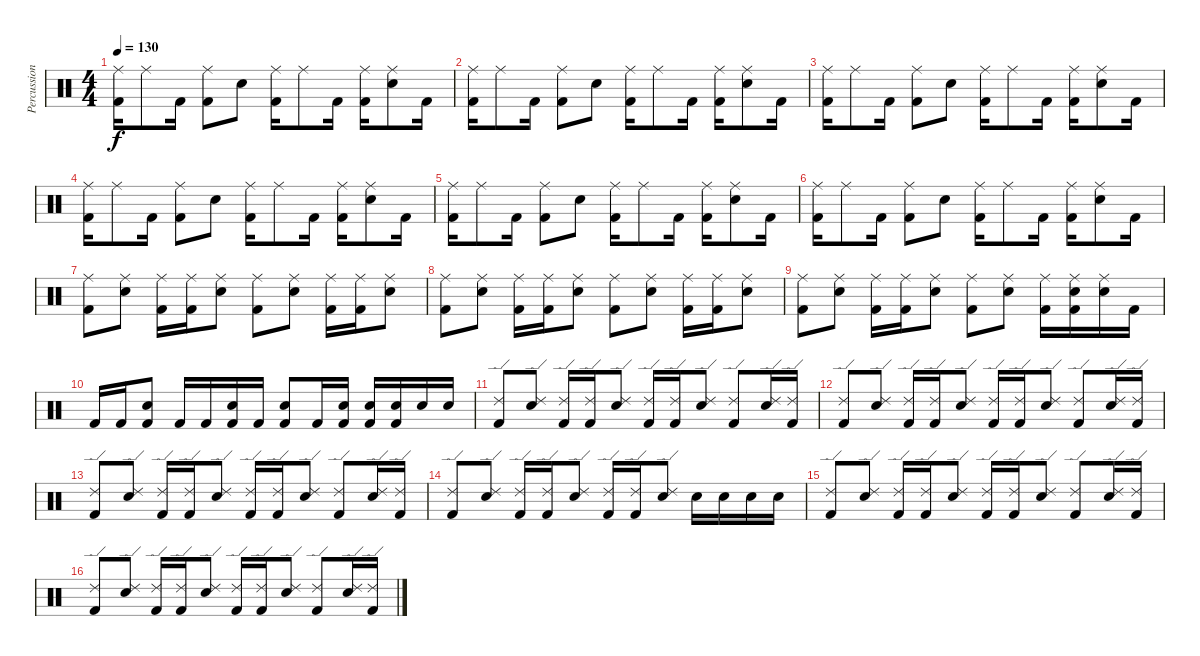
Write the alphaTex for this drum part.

\track ("Percussion" "Percussion") {instrument percussion}
\staff {score}
\articulation defaults
\ts (4 4)
\tempo 130
\clef neutral
\ks c
("Kick (hit) 2" "Ride (middle)").16{dy f} "Ride (middle)".8 "Kick (hit) 2".16 ("Kick (hit) 2" "Ride (middle)").8 "Snare (hit) 2".8 ("Kick (hit) 2" "Ride (middle)").16 "Ride (middle)".8 "Kick (hit) 2".16 ("Kick (hit) 2" "Ride (middle)").16 ("Snare (hit) 2" "Ride (middle)").8 "Kick (hit) 2".16 |
("Kick (hit) 2" "Ride (middle)").16 "Ride (middle)".8 "Kick (hit) 2".16 ("Kick (hit) 2" "Ride (middle)").8 "Snare (hit) 2".8 ("Kick (hit) 2" "Ride (middle)").16 "Ride (middle)".8 "Kick (hit) 2".16 ("Kick (hit) 2" "Ride (middle)").16 ("Snare (hit) 2" "Ride (middle)").8 "Kick (hit) 2".16 |
("Kick (hit) 2" "Ride (middle)").16 "Ride (middle)".8 "Kick (hit) 2".16 ("Kick (hit) 2" "Ride (middle)").8 "Snare (hit) 2".8 ("Kick (hit) 2" "Ride (middle)").16 "Ride (middle)".8 "Kick (hit) 2".16 ("Kick (hit) 2" "Ride (middle)").16 ("Snare (hit) 2" "Ride (middle)").8 "Kick (hit) 2".16 |
("Kick (hit) 2" "Ride (middle)").16 "Ride (middle)".8 "Kick (hit) 2".16 ("Kick (hit) 2" "Ride (middle)").8 "Snare (hit) 2".8 ("Kick (hit) 2" "Ride (middle)").16 "Ride (middle)".8 "Kick (hit) 2".16 ("Kick (hit) 2" "Ride (middle)").16 ("Snare (hit) 2" "Ride (middle)").8 "Kick (hit) 2".16 |
("Kick (hit) 2" "Ride (middle)").16 "Ride (middle)".8 "Kick (hit) 2".16 ("Kick (hit) 2" "Ride (middle)").8 "Snare (hit) 2".8 ("Kick (hit) 2" "Ride (middle)").16 "Ride (middle)".8 "Kick (hit) 2".16 ("Kick (hit) 2" "Ride (middle)").16 ("Snare (hit) 2" "Ride (middle)").8 "Kick (hit) 2".16 |
("Kick (hit) 2" "Ride (middle)").16 "Ride (middle)".8 "Kick (hit) 2".16 ("Kick (hit) 2" "Ride (middle)").8 "Snare (hit) 2".8 ("Kick (hit) 2" "Ride (middle)").16 "Ride (middle)".8 "Kick (hit) 2".16 ("Kick (hit) 2" "Ride (middle)").16 ("Snare (hit) 2" "Ride (middle)").8 "Kick (hit) 2".16 |
("Kick (hit) 2" "Ride (middle)").8 ("Snare (hit) 2" "Ride (middle)").8 ("Kick (hit) 2" "Ride (middle)").16 ("Kick (hit) 2" "Ride (middle)").16 ("Snare (hit) 2" "Ride (middle)").8 ("Kick (hit) 2" "Ride (middle)").8 ("Snare (hit) 2" "Ride (middle)").8 ("Kick (hit) 2" "Ride (middle)").16 ("Kick (hit) 2" "Ride (middle)").16 ("Snare (hit) 2" "Ride (middle)").8 |
("Kick (hit) 2" "Ride (middle)").8 ("Snare (hit) 2" "Ride (middle)").8 ("Kick (hit) 2" "Ride (middle)").16 ("Kick (hit) 2" "Ride (middle)").16 ("Snare (hit) 2" "Ride (middle)").8 ("Kick (hit) 2" "Ride (middle)").8 ("Snare (hit) 2" "Ride (middle)").8 ("Kick (hit) 2" "Ride (middle)").16 ("Kick (hit) 2" "Ride (middle)").16 ("Snare (hit) 2" "Ride (middle)").8 |
("Kick (hit) 2" "Ride (middle)").8 ("Snare (hit) 2" "Ride (middle)").8 ("Kick (hit) 2" "Ride (middle)").16 ("Kick (hit) 2" "Ride (middle)").16 ("Snare (hit) 2" "Ride (middle)").8 ("Kick (hit) 2" "Ride (middle)").8 ("Snare (hit) 2" "Ride (middle)").8 ("Kick (hit) 2" "Ride (middle)").16 ("Kick (hit) 2" "Snare (hit) 2" "Ride (middle)").16 ("Snare (hit) 2" "Ride (middle)").16 "Kick (hit) 2".16 |
"Kick (hit) 2".16 "Kick (hit) 2".16 ("Kick (hit) 2" "Snare (hit) 2").8 "Kick (hit) 2".16 "Kick (hit) 2".16 ("Kick (hit) 2" "Snare (hit) 2").16 "Kick (hit) 2".16 ("Kick (hit) 2" "Snare (hit) 2").8 "Kick (hit) 2".16 ("Kick (hit) 2" "Snare (hit) 2").16 ("Kick (hit) 2" "Snare (hit) 2").16 ("Kick (hit) 2" "Snare (hit) 2").16 "Snare (hit) 2".16 "Snare (hit) 2".16 |
("Kick (hit) 2" "Ride (edge) 2").8 ("Snare (hit) 2" "Ride (edge) 2").8 ("Kick (hit) 2" "Ride (edge) 2").16 ("Kick (hit) 2" "Ride (edge) 2").16 ("Snare (hit) 2" "Ride (edge) 2").8 ("Kick (hit) 2" "Ride (edge) 2").16 ("Kick (hit) 2" "Ride (edge) 2").16 ("Snare (hit) 2" "Ride (edge) 2").8 ("Kick (hit) 2" "Ride (edge) 2").8 ("Snare (hit) 2" "Ride (edge) 2").16 ("Kick (hit) 2" "Ride (edge) 2").16 |
("Kick (hit) 2" "Ride (edge) 2").8 ("Snare (hit) 2" "Ride (edge) 2").8 ("Kick (hit) 2" "Ride (edge) 2").16 ("Kick (hit) 2" "Ride (edge) 2").16 ("Snare (hit) 2" "Ride (edge) 2").8 ("Kick (hit) 2" "Ride (edge) 2").16 ("Kick (hit) 2" "Ride (edge) 2").16 ("Snare (hit) 2" "Ride (edge) 2").8 ("Kick (hit) 2" "Ride (edge) 2").8 ("Snare (hit) 2" "Ride (edge) 2").16 ("Kick (hit) 2" "Ride (edge) 2").16 |
("Kick (hit) 2" "Ride (edge) 2").8 ("Snare (hit) 2" "Ride (edge) 2").8 ("Kick (hit) 2" "Ride (edge) 2").16 ("Kick (hit) 2" "Ride (edge) 2").16 ("Snare (hit) 2" "Ride (edge) 2").8 ("Kick (hit) 2" "Ride (edge) 2").16 ("Kick (hit) 2" "Ride (edge) 2").16 ("Snare (hit) 2" "Ride (edge) 2").8 ("Kick (hit) 2" "Ride (edge) 2").8 ("Snare (hit) 2" "Ride (edge) 2").16 ("Kick (hit) 2" "Ride (edge) 2").16 |
("Kick (hit) 2" "Ride (edge) 2").8 ("Snare (hit) 2" "Ride (edge) 2").8 ("Kick (hit) 2" "Ride (edge) 2").16 ("Kick (hit) 2" "Ride (edge) 2").16 ("Snare (hit) 2" "Ride (edge) 2").8 ("Kick (hit) 2" "Ride (edge) 2").16 ("Kick (hit) 2" "Ride (edge) 2").16 ("Snare (hit) 2" "Ride (edge) 2").8 "Snare (hit) 2".16 "Snare (hit) 2".16 "Snare (hit) 2".16 "Snare (hit) 2".16 |
("Kick (hit) 2" "Ride (edge) 2").8 ("Snare (hit) 2" "Ride (edge) 2").8 ("Kick (hit) 2" "Ride (edge) 2").16 ("Kick (hit) 2" "Ride (edge) 2").16 ("Snare (hit) 2" "Ride (edge) 2").8 ("Kick (hit) 2" "Ride (edge) 2").16 ("Kick (hit) 2" "Ride (edge) 2").16 ("Snare (hit) 2" "Ride (edge) 2").8 ("Kick (hit) 2" "Ride (edge) 2").8 ("Snare (hit) 2" "Ride (edge) 2").16 ("Kick (hit) 2" "Ride (edge) 2").16 |
("Kick (hit) 2" "Ride (edge) 2").8 ("Snare (hit) 2" "Ride (edge) 2").8 ("Kick (hit) 2" "Ride (edge) 2").16 ("Kick (hit) 2" "Ride (edge) 2").16 ("Snare (hit) 2" "Ride (edge) 2").8 ("Kick (hit) 2" "Ride (edge) 2").16 ("Kick (hit) 2" "Ride (edge) 2").16 ("Snare (hit) 2" "Ride (edge) 2").8 ("Kick (hit) 2" "Ride (edge) 2").8 ("Snare (hit) 2" "Ride (edge) 2").16 ("Kick (hit) 2" "Ride (edge) 2").16
